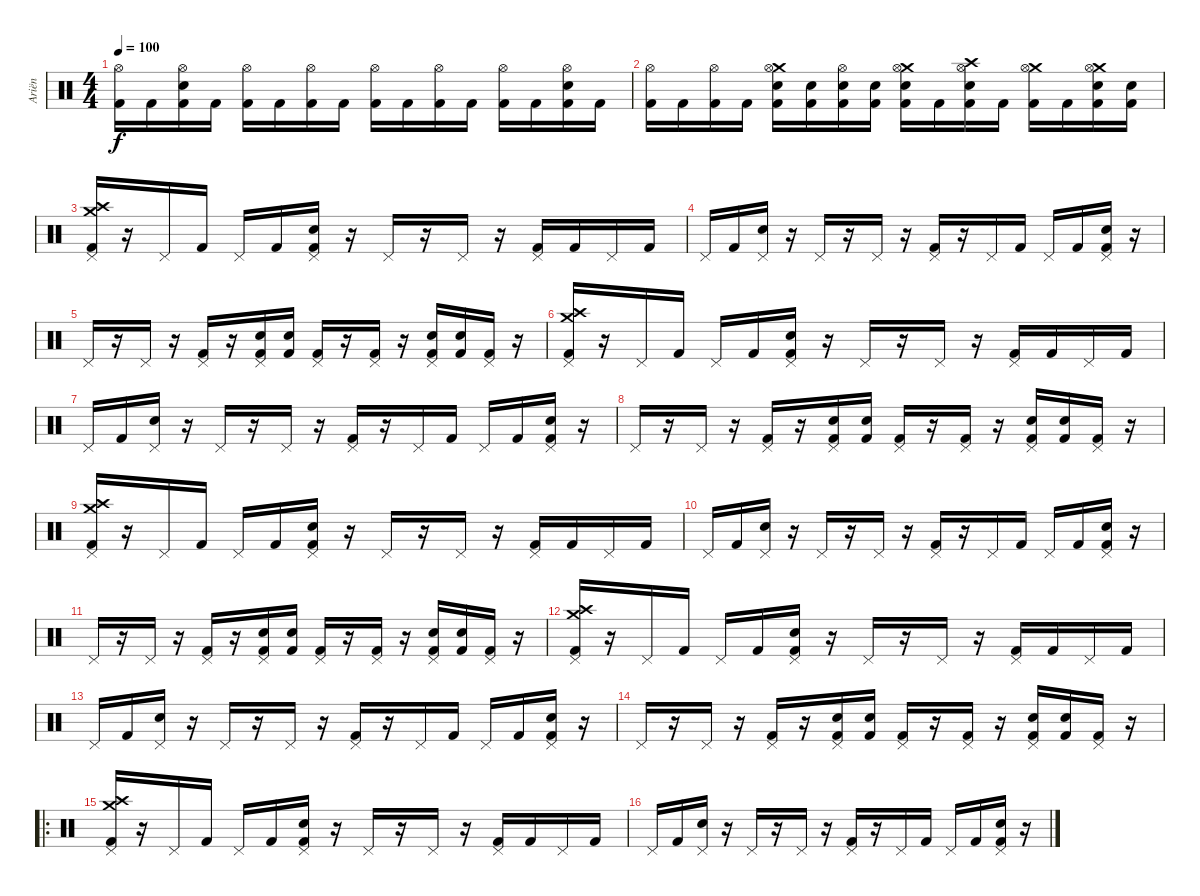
\track ("Ariën" "Ariën") {instrument percussion}
\staff {score}
\articulation defaults
\ts (4 4)
\tempo 100
\clef neutral
\ks c
("Hi-Hat (open)" "Kick (hit) 2").16{dy f} "Kick (hit) 2".16 ("Hi-Hat (open)" "Snare (hit) 2" "Kick (hit) 2").16 "Kick (hit) 2".16 ("Hi-Hat (open)" "Kick (hit) 2").16 "Kick (hit) 2".16 ("Hi-Hat (open)" "Kick (hit) 2").16 "Kick (hit) 2".16 ("Hi-Hat (open)" "Kick (hit) 2").16 "Kick (hit) 2".16 ("Hi-Hat (open)" "Kick (hit) 2").16 "Kick (hit) 2".16 ("Hi-Hat (open)" "Kick (hit) 2").16 "Kick (hit) 2".16 ("Hi-Hat (open)" "Snare (hit) 2" "Kick (hit) 2").16 "Kick (hit) 2".16 |
("Hi-Hat (open)" "Kick (hit) 2").16 "Kick (hit) 2".16 ("Hi-Hat (open)" "Kick (hit) 2").16 "Kick (hit) 2".16 ("Crash medium (hit)" "Hi-Hat (open)" "Snare (hit) 2" "Kick (hit) 2").16 ("Snare (hit) 2" "Kick (hit) 2").16 ("Hi-Hat (open)" "Snare (hit) 2" "Kick (hit) 2").16 ("Snare (hit) 2" "Kick (hit) 2").16 ("Crash medium (hit)" "Hi-Hat (open)" "Snare (hit) 2" "Kick (hit) 2").16 "Kick (hit) 2".16 ("Crash high (hit)" "Hi-Hat (open)" "Snare (hit) 2" "Kick (hit) 2").16 "Kick (hit) 2".16 ("Crash medium (hit)" "Hi-Hat (open)" "Kick (hit) 2").16 "Kick (hit) 2".16 ("Crash medium (hit)" "Hi-Hat (open)" "Snare (hit) 2" "Kick (hit) 2").16 ("Snare (hit) 2" "Kick (hit) 2").16 |
("Crash medium (hit)" "Crash high (hit)" "Pedal Hi-Hat (hit)" "Kick (hit) 2").16 r.16 "Pedal Hi-Hat (hit)".16 "Kick (hit) 2".16 "Pedal Hi-Hat (hit)".16 "Kick (hit) 2".16 ("Pedal Hi-Hat (hit)" "Snare (hit) 2" "Kick (hit) 2").16 r.16 "Pedal Hi-Hat (hit)".16 r.16 "Pedal Hi-Hat (hit)".16 r.16 ("Pedal Hi-Hat (hit)" "Kick (hit) 2").16 "Kick (hit) 2".16 "Pedal Hi-Hat (hit)".16 "Kick (hit) 2".16 |
"Pedal Hi-Hat (hit)".16 "Kick (hit) 2".16 ("Pedal Hi-Hat (hit)" "Snare (hit) 2").16 r.16 "Pedal Hi-Hat (hit)".16 r.16 "Pedal Hi-Hat (hit)".16 r.16 ("Pedal Hi-Hat (hit)" "Kick (hit) 2").16 r.16 "Pedal Hi-Hat (hit)".16 "Kick (hit) 2".16 "Pedal Hi-Hat (hit)".16 "Kick (hit) 2".16 ("Pedal Hi-Hat (hit)" "Snare (hit) 2" "Kick (hit) 2").16 r.16 |
"Pedal Hi-Hat (hit)".16 r.16 "Pedal Hi-Hat (hit)".16 r.16 ("Pedal Hi-Hat (hit)" "Kick (hit) 2").16 r.16 ("Pedal Hi-Hat (hit)" "Snare (hit) 2" "Kick (hit) 2").16 ("Snare (hit) 2" "Kick (hit) 2").16 ("Pedal Hi-Hat (hit)" "Kick (hit) 2").16 r.16 ("Pedal Hi-Hat (hit)" "Kick (hit) 2").16 r.16 ("Pedal Hi-Hat (hit)" "Snare (hit) 2" "Kick (hit) 2").16 ("Snare (hit) 2" "Kick (hit) 2").16 ("Pedal Hi-Hat (hit)" "Kick (hit) 2").16 r.16 |
("Crash medium (hit)" "Crash high (hit)" "Pedal Hi-Hat (hit)" "Kick (hit) 2").16 r.16 "Pedal Hi-Hat (hit)".16 "Kick (hit) 2".16 "Pedal Hi-Hat (hit)".16 "Kick (hit) 2".16 ("Pedal Hi-Hat (hit)" "Snare (hit) 2" "Kick (hit) 2").16 r.16 "Pedal Hi-Hat (hit)".16 r.16 "Pedal Hi-Hat (hit)".16 r.16 ("Pedal Hi-Hat (hit)" "Kick (hit) 2").16 "Kick (hit) 2".16 "Pedal Hi-Hat (hit)".16 "Kick (hit) 2".16 |
"Pedal Hi-Hat (hit)".16 "Kick (hit) 2".16 ("Pedal Hi-Hat (hit)" "Snare (hit) 2").16 r.16 "Pedal Hi-Hat (hit)".16 r.16 "Pedal Hi-Hat (hit)".16 r.16 ("Pedal Hi-Hat (hit)" "Kick (hit) 2").16 r.16 "Pedal Hi-Hat (hit)".16 "Kick (hit) 2".16 "Pedal Hi-Hat (hit)".16 "Kick (hit) 2".16 ("Pedal Hi-Hat (hit)" "Snare (hit) 2" "Kick (hit) 2").16 r.16 |
"Pedal Hi-Hat (hit)".16 r.16 "Pedal Hi-Hat (hit)".16 r.16 ("Pedal Hi-Hat (hit)" "Kick (hit) 2").16 r.16 ("Pedal Hi-Hat (hit)" "Snare (hit) 2" "Kick (hit) 2").16 ("Snare (hit) 2" "Kick (hit) 2").16 ("Pedal Hi-Hat (hit)" "Kick (hit) 2").16 r.16 ("Pedal Hi-Hat (hit)" "Kick (hit) 2").16 r.16 ("Pedal Hi-Hat (hit)" "Snare (hit) 2" "Kick (hit) 2").16 ("Snare (hit) 2" "Kick (hit) 2").16 ("Pedal Hi-Hat (hit)" "Kick (hit) 2").16 r.16 |
("Crash medium (hit)" "Crash high (hit)" "Pedal Hi-Hat (hit)" "Kick (hit) 2").16 r.16 "Pedal Hi-Hat (hit)".16 "Kick (hit) 2".16 "Pedal Hi-Hat (hit)".16 "Kick (hit) 2".16 ("Pedal Hi-Hat (hit)" "Snare (hit) 2" "Kick (hit) 2").16 r.16 "Pedal Hi-Hat (hit)".16 r.16 "Pedal Hi-Hat (hit)".16 r.16 ("Pedal Hi-Hat (hit)" "Kick (hit) 2").16 "Kick (hit) 2".16 "Pedal Hi-Hat (hit)".16 "Kick (hit) 2".16 |
"Pedal Hi-Hat (hit)".16 "Kick (hit) 2".16 ("Pedal Hi-Hat (hit)" "Snare (hit) 2").16 r.16 "Pedal Hi-Hat (hit)".16 r.16 "Pedal Hi-Hat (hit)".16 r.16 ("Pedal Hi-Hat (hit)" "Kick (hit) 2").16 r.16 "Pedal Hi-Hat (hit)".16 "Kick (hit) 2".16 "Pedal Hi-Hat (hit)".16 "Kick (hit) 2".16 ("Pedal Hi-Hat (hit)" "Snare (hit) 2" "Kick (hit) 2").16 r.16 |
"Pedal Hi-Hat (hit)".16 r.16 "Pedal Hi-Hat (hit)".16 r.16 ("Pedal Hi-Hat (hit)" "Kick (hit) 2").16 r.16 ("Pedal Hi-Hat (hit)" "Snare (hit) 2" "Kick (hit) 2").16 ("Snare (hit) 2" "Kick (hit) 2").16 ("Pedal Hi-Hat (hit)" "Kick (hit) 2").16 r.16 ("Pedal Hi-Hat (hit)" "Kick (hit) 2").16 r.16 ("Pedal Hi-Hat (hit)" "Snare (hit) 2" "Kick (hit) 2").16 ("Snare (hit) 2" "Kick (hit) 2").16 ("Pedal Hi-Hat (hit)" "Kick (hit) 2").16 r.16 |
("Crash medium (hit)" "Crash high (hit)" "Pedal Hi-Hat (hit)" "Kick (hit) 2").16 r.16 "Pedal Hi-Hat (hit)".16 "Kick (hit) 2".16 "Pedal Hi-Hat (hit)".16 "Kick (hit) 2".16 ("Pedal Hi-Hat (hit)" "Snare (hit) 2" "Kick (hit) 2").16 r.16 "Pedal Hi-Hat (hit)".16 r.16 "Pedal Hi-Hat (hit)".16 r.16 ("Pedal Hi-Hat (hit)" "Kick (hit) 2").16 "Kick (hit) 2".16 "Pedal Hi-Hat (hit)".16 "Kick (hit) 2".16 |
"Pedal Hi-Hat (hit)".16 "Kick (hit) 2".16 ("Pedal Hi-Hat (hit)" "Snare (hit) 2").16 r.16 "Pedal Hi-Hat (hit)".16 r.16 "Pedal Hi-Hat (hit)".16 r.16 ("Pedal Hi-Hat (hit)" "Kick (hit) 2").16 r.16 "Pedal Hi-Hat (hit)".16 "Kick (hit) 2".16 "Pedal Hi-Hat (hit)".16 "Kick (hit) 2".16 ("Pedal Hi-Hat (hit)" "Snare (hit) 2" "Kick (hit) 2").16 r.16 |
"Pedal Hi-Hat (hit)".16 r.16 "Pedal Hi-Hat (hit)".16 r.16 ("Pedal Hi-Hat (hit)" "Kick (hit) 2").16 r.16 ("Pedal Hi-Hat (hit)" "Snare (hit) 2" "Kick (hit) 2").16 ("Snare (hit) 2" "Kick (hit) 2").16 ("Pedal Hi-Hat (hit)" "Kick (hit) 2").16 r.16 ("Pedal Hi-Hat (hit)" "Kick (hit) 2").16 r.16 ("Pedal Hi-Hat (hit)" "Snare (hit) 2" "Kick (hit) 2").16 ("Snare (hit) 2" "Kick (hit) 2").16 ("Pedal Hi-Hat (hit)" "Kick (hit) 2").16 r.16 |
\ro
("Crash medium (hit)" "Crash high (hit)" "Pedal Hi-Hat (hit)" "Kick (hit) 2").16 r.16 "Pedal Hi-Hat (hit)".16 "Kick (hit) 2".16 "Pedal Hi-Hat (hit)".16 "Kick (hit) 2".16 ("Pedal Hi-Hat (hit)" "Snare (hit) 2" "Kick (hit) 2").16 r.16 "Pedal Hi-Hat (hit)".16 r.16 "Pedal Hi-Hat (hit)".16 r.16 ("Pedal Hi-Hat (hit)" "Kick (hit) 2").16 "Kick (hit) 2".16 "Pedal Hi-Hat (hit)".16 "Kick (hit) 2".16 |
"Pedal Hi-Hat (hit)".16 "Kick (hit) 2".16 ("Pedal Hi-Hat (hit)" "Snare (hit) 2").16 r.16 "Pedal Hi-Hat (hit)".16 r.16 "Pedal Hi-Hat (hit)".16 r.16 ("Pedal Hi-Hat (hit)" "Kick (hit) 2").16 r.16 "Pedal Hi-Hat (hit)".16 "Kick (hit) 2".16 "Pedal Hi-Hat (hit)".16 "Kick (hit) 2".16 ("Pedal Hi-Hat (hit)" "Snare (hit) 2" "Kick (hit) 2").16 r.16
